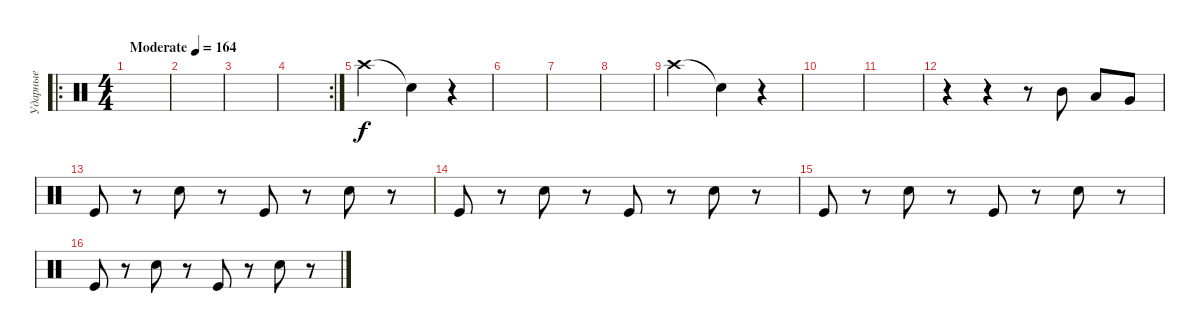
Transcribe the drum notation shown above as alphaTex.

\track ("Ударные" "Ударные") {instrument percussion}
\staff {score}
\articulation defaults
\ro
\ts (4 4)
\tempo (164 "Moderate")
\clef neutral
\ks c
|
|
|
\rc 2
|
"Crash high (hit)".2 "Snare (hit)"{t}.4 r.4 |
|
|
|
"Crash high (hit)".2 "Snare (hit)"{t}.4 r.4 |
|
|
r.4 r.4 r.8 "Mid Tom (hit)".8 "Low Tom (hit)".8 "Very Low Tom (hit)".8 |
"Kick (hit)".8 r.8 "Snare (hit) 2".8 r.8 "Kick (hit)".8 r.8 "Snare (hit) 2".8 r.8 |
"Kick (hit)".8 r.8 "Snare (hit) 2".8 r.8 "Kick (hit)".8 r.8 "Snare (hit) 2".8 r.8 |
"Kick (hit)".8 r.8 "Snare (hit) 2".8 r.8 "Kick (hit)".8 r.8 "Snare (hit) 2".8 r.8 |
"Kick (hit)".8 r.8 "Snare (hit) 2".8 r.8 "Kick (hit)".8 r.8 "Snare (hit) 2".8 r.8
